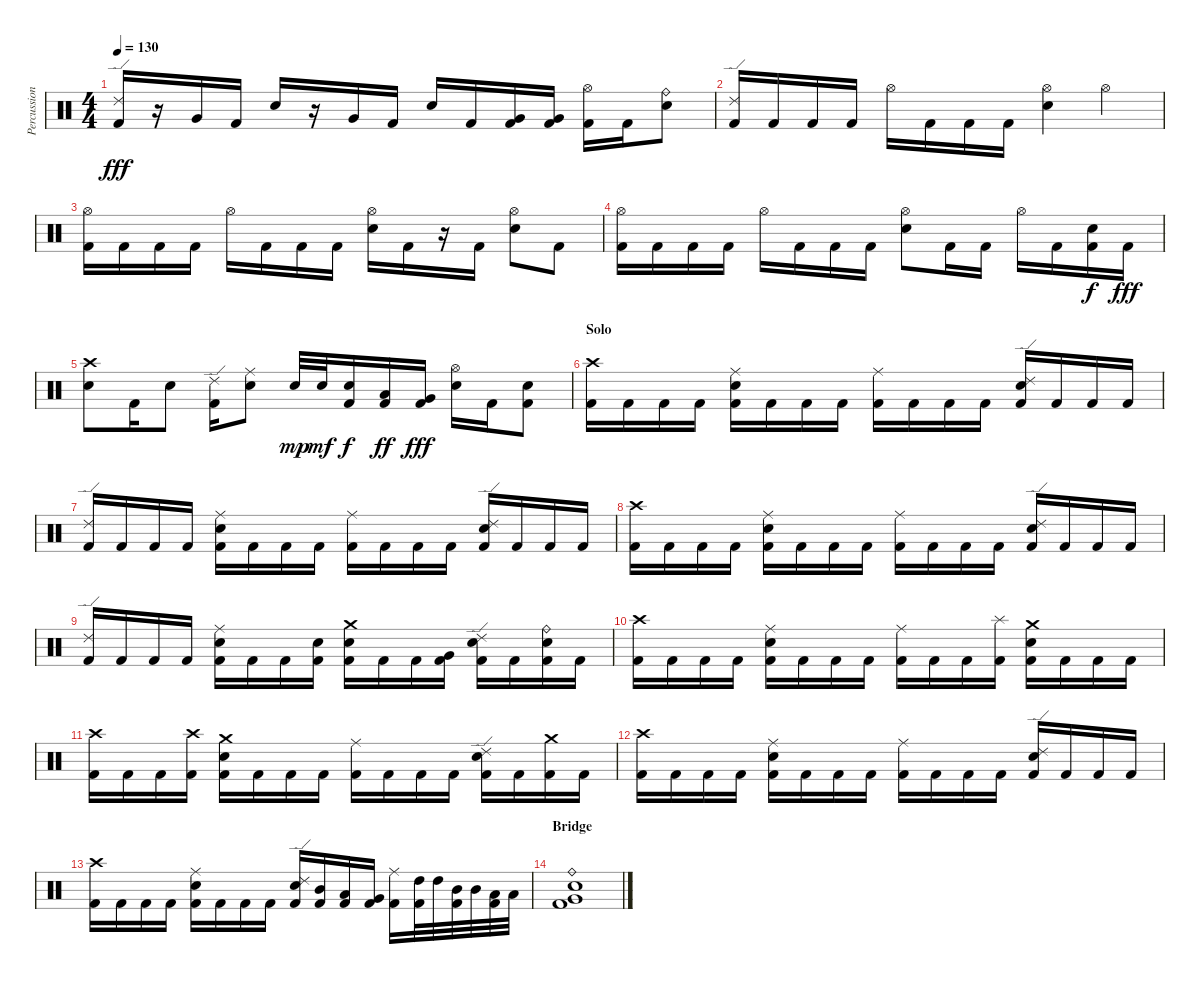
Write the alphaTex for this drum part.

\track ("Percussion" "Percussion") {instrument percussion}
\staff {score}
\articulation defaults
\ts (4 4)
\tempo 130
\clef neutral
\ks c
("Ride (edge) 2" "Kick (hit) 2").16{dy fff} r.16 "Very Low Tom (hit)".16 "Kick (hit) 2".16 "Electric Snare (hit)".16 r.16 "Very Low Tom (hit)".16 "Kick (hit) 2".16 "Electric Snare (hit)".16 "Kick (hit) 2".16 ("Very Low Tom (hit)" "Kick (hit) 2").16 ("Very Low Tom (hit)" "Kick (hit) 2").16 ("Hi-Hat (open)" "Kick (hit) 2").16 "Kick (hit) 2".16 ("Ride (bell)" "Electric Snare (hit)").8 |
("Ride (edge) 2" "Kick (hit) 2").16 "Kick (hit) 2".16 "Kick (hit) 2".16 "Kick (hit) 2".16 "Hi-Hat (open)".16 "Kick (hit) 2".16 "Kick (hit) 2".16 "Kick (hit) 2".16 ("Hi-Hat (open)" "Electric Snare (hit)").4 "Hi-Hat (open)".4 |
("Hi-Hat (open)" "Kick (hit) 2").16 "Kick (hit) 2".16 "Kick (hit) 2".16 "Kick (hit) 2".16 "Hi-Hat (open)".16 "Kick (hit) 2".16 "Kick (hit) 2".16 "Kick (hit) 2".16 ("Hi-Hat (open)" "Electric Snare (hit)").16 "Kick (hit) 2".16 r.16 "Kick (hit) 2".16 ("Hi-Hat (open)" "Electric Snare (hit)").8 "Kick (hit) 2".8 |
("Hi-Hat (open)" "Kick (hit) 2").16 "Kick (hit) 2".16 "Kick (hit) 2".16 "Kick (hit) 2".16 "Hi-Hat (open)".16 "Kick (hit) 2".16 "Kick (hit) 2".16 "Kick (hit) 2".16 ("Hi-Hat (open)" "Electric Snare (hit)").8 "Kick (hit) 2".16 "Kick (hit) 2".16 "Hi-Hat (open)".16 "Kick (hit) 2".16 ("Electric Snare (hit)" "Kick (hit) 2").16{dy f} "Kick (hit) 2".16{dy fff} |
("Crash high (hit)" "Electric Snare (hit)").8 "Kick (hit) 2".16 "Electric Snare (hit)".8 ("Ride (edge) 2" "Kick (hit) 2").16 ("Ride (middle)" "Electric Snare (hit)").8 "Electric Snare (hit)".32{dy mp} "Electric Snare (hit)".32{dy mf} ("Electric Snare (hit)" "Kick (hit) 2").16{dy f} ("Low Tom (hit)" "Kick (hit) 2").16{dy ff} ("Very Low Tom (hit)" "Kick (hit) 2").16{dy fff} ("Hi-Hat (open)" "Electric Snare (hit)").16 "Kick (hit) 2".16 ("Electric Snare (hit)" "Kick (hit) 2").8 |
\section ("" "Solo")
("Crash high (hit)" "Kick (hit) 2").16 "Kick (hit) 2".16 "Kick (hit) 2".16 "Kick (hit) 2".16 ("Ride (middle)" "Electric Snare (hit)" "Kick (hit) 2").16 "Kick (hit) 2".16 "Kick (hit) 2".16 "Kick (hit) 2".16 ("Ride (middle)" "Kick (hit) 2").16 "Kick (hit) 2".16 "Kick (hit) 2".16 "Kick (hit) 2".16 ("Ride (edge) 2" "Electric Snare (hit)" "Kick (hit) 2").16 "Kick (hit) 2".16 "Kick (hit) 2".16 "Kick (hit) 2".16 |
("Ride (edge) 2" "Kick (hit) 2").16 "Kick (hit) 2".16 "Kick (hit) 2".16 "Kick (hit) 2".16 ("Ride (middle)" "Electric Snare (hit)" "Kick (hit) 2").16 "Kick (hit) 2".16 "Kick (hit) 2".16 "Kick (hit) 2".16 ("Ride (middle)" "Kick (hit) 2").16 "Kick (hit) 2".16 "Kick (hit) 2".16 "Kick (hit) 2".16 ("Ride (edge) 2" "Electric Snare (hit)" "Kick (hit) 2").16 "Kick (hit) 2".16 "Kick (hit) 2".16 "Kick (hit) 2".16 |
("Crash high (hit)" "Kick (hit) 2").16 "Kick (hit) 2".16 "Kick (hit) 2".16 "Kick (hit) 2".16 ("Ride (middle)" "Electric Snare (hit)" "Kick (hit) 2").16 "Kick (hit) 2".16 "Kick (hit) 2".16 "Kick (hit) 2".16 ("Ride (middle)" "Kick (hit) 2").16 "Kick (hit) 2".16 "Kick (hit) 2".16 "Kick (hit) 2".16 ("Ride (edge) 2" "Electric Snare (hit)" "Kick (hit) 2").16 "Kick (hit) 2".16 "Kick (hit) 2".16 "Kick (hit) 2".16 |
("Ride (edge) 2" "Kick (hit) 2").16 "Kick (hit) 2".16 "Kick (hit) 2".16 "Kick (hit) 2".16 ("Ride (middle)" "Electric Snare (hit)" "Kick (hit) 2").16 "Kick (hit) 2".16 "Kick (hit) 2".16 ("Electric Snare (hit)" "Kick (hit) 2").16 ("Crash medium (hit)" "Electric Snare (hit)" "Kick (hit) 2").16 "Kick (hit) 2".16 "Kick (hit) 2".16 ("Very Low Tom (hit)" "Kick (hit) 2").16 ("Ride (edge) 2" "Electric Snare (hit)" "Kick (hit) 2").16 "Kick (hit) 2".16 ("Ride (bell)" "Electric Snare (hit)" "Kick (hit) 2").16 "Kick (hit) 2".16 |
("Crash high (hit)" "Kick (hit) 2").16 "Kick (hit) 2".16 "Kick (hit) 2".16 "Kick (hit) 2".16 ("Ride (middle)" "Electric Snare (hit)" "Kick (hit) 2").16 "Kick (hit) 2".16 "Kick (hit) 2".16 "Kick (hit) 2".16 ("Ride (middle)" "Kick (hit) 2").16 "Kick (hit) 2".16 "Kick (hit) 2".16 ("Splash (hit)" "Kick (hit) 2").16 ("Crash medium (hit)" "Electric Snare (hit)" "Kick (hit) 2").16 "Kick (hit) 2".16 "Kick (hit) 2".16 "Kick (hit) 2".16 |
("Crash high (hit)" "Kick (hit) 2").16 "Kick (hit) 2".16 "Kick (hit) 2".16 ("Crash high (hit)" "Kick (hit) 2").16 ("Crash medium (hit)" "Electric Snare (hit)" "Kick (hit) 2").16 "Kick (hit) 2".16 "Kick (hit) 2".16 "Kick (hit) 2".16 ("Ride (middle)" "Kick (hit) 2").16 "Kick (hit) 2".16 "Kick (hit) 2".16 "Kick (hit) 2".16 ("Ride (edge) 2" "Electric Snare (hit)" "Kick (hit) 2").16 "Kick (hit) 2".16 ("Crash medium (hit)" "Kick (hit) 2").16 "Kick (hit) 2".16 |
("Crash high (hit)" "Kick (hit) 2").16 "Kick (hit) 2".16 "Kick (hit) 2".16 "Kick (hit) 2".16 ("Ride (middle)" "Electric Snare (hit)" "Kick (hit) 2").16 "Kick (hit) 2".16 "Kick (hit) 2".16 "Kick (hit) 2".16 ("Ride (middle)" "Kick (hit) 2").16 "Kick (hit) 2".16 "Kick (hit) 2".16 "Kick (hit) 2".16 ("Ride (edge) 2" "Electric Snare (hit)" "Kick (hit) 2").16 "Kick (hit) 2".16 "Kick (hit) 2".16 "Kick (hit) 2".16 |
("Crash high (hit)" "Kick (hit) 2").16 "Kick (hit) 2".16 "Kick (hit) 2".16 "Kick (hit) 2".16 ("Ride (middle)" "Electric Snare (hit)" "Kick (hit) 2").16 "Kick (hit) 2".16 "Kick (hit) 2".16 "Kick (hit) 2".16 ("Ride (edge) 2" "Electric Snare (hit)" "Kick (hit) 2").16 ("Mid Tom (hit)" "Kick (hit) 2").16 ("Low Tom (hit)" "Kick (hit) 2").16 ("Very Low Tom (hit)" "Kick (hit) 2").16 ("Ride (middle)" "Kick (hit) 2").16 ("High Tom (hit)" "Kick (hit) 2").32 "High Tom (hit)".32 ("Mid Tom (hit)" "Kick (hit) 2").32 "Mid Tom (hit)".32 ("Low Tom (hit)" "Kick (hit) 2").32 "Low Tom (hit)".32 |
\section ("" "Bridge")
("Ride (bell)" "Very Low Tom (hit)" "Electric Snare (hit)" "Kick (hit) 2").1
